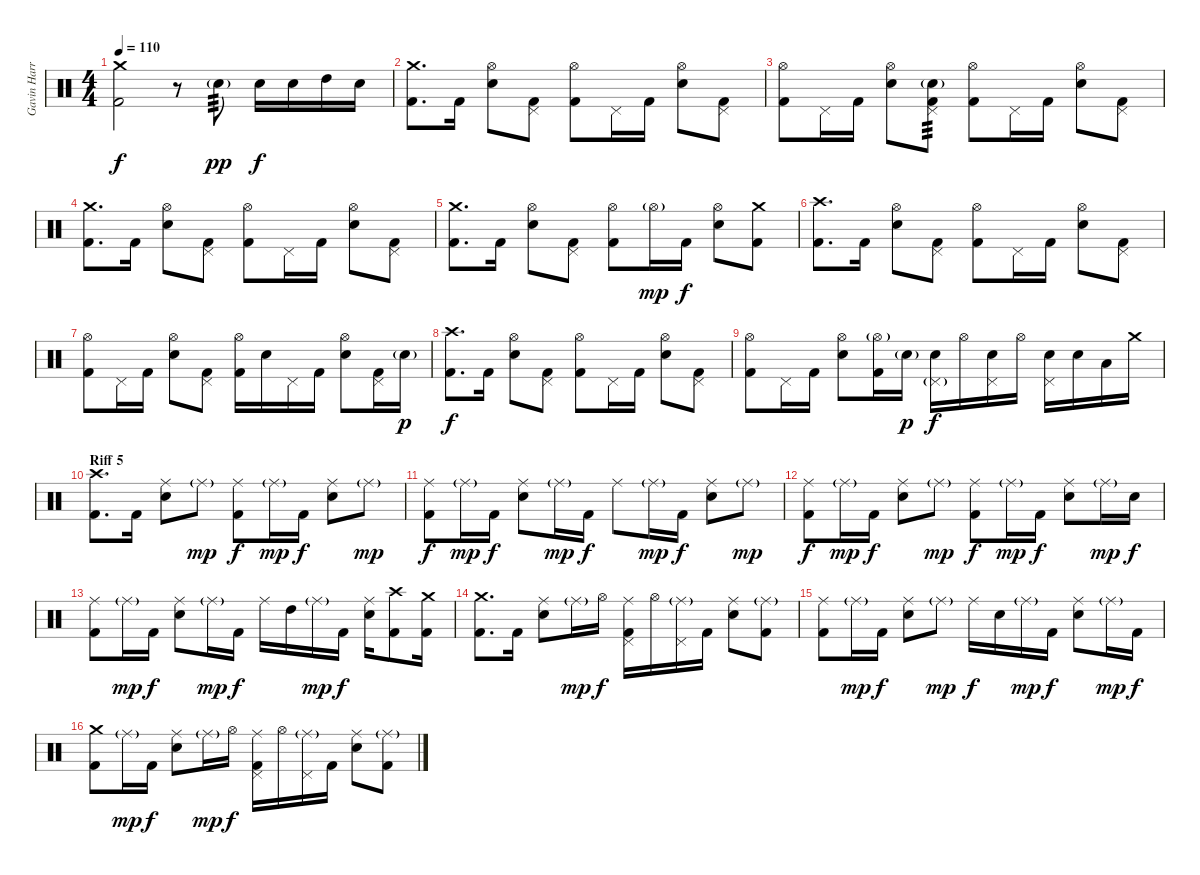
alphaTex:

\track ("Gavin Harrison - Drums" "Gavin Harr") {instrument percussion}
\staff {score}
\articulation defaults
\ts (4 4)
\tempo 110
\clef neutral
\ks c
("Crash medium (hit)" "Kick (hit) 2").2{dy f} r.8 "Electric Snare (hit)"{g}.8{tp 3 dy pp} "Electric Snare (hit)".16{dy f} "Electric Snare (hit)".16 "High Tom (hit)".16 "Electric Snare (hit)".16 |
("Crash medium (hit)" "Kick (hit) 2").8{d} "Kick (hit) 2".16 ("Hi-Hat (open)" "Electric Snare (hit)").8 ("Pedal Hi-Hat (hit)" "Kick (hit) 2").8 ("Hi-Hat (open)" "Kick (hit) 2").8 "Pedal Hi-Hat (hit)".16 "Kick (hit) 2".16 ("Hi-Hat (open)" "Electric Snare (hit)").8 ("Pedal Hi-Hat (hit)" "Kick (hit) 2").8 |
("Hi-Hat (open)" "Kick (hit) 2").8 "Pedal Hi-Hat (hit)".16 "Kick (hit) 2".16 ("Hi-Hat (open)" "Electric Snare (hit)").8 ("Pedal Hi-Hat (hit)" "Electric Snare (hit)"{g} "Kick (hit) 2").8{tp 3} ("Hi-Hat (open)" "Kick (hit) 2").8 "Pedal Hi-Hat (hit)".16 "Kick (hit) 2".16 ("Hi-Hat (open)" "Electric Snare (hit)").8 ("Pedal Hi-Hat (hit)" "Kick (hit) 2").8 |
("Crash medium (hit)" "Kick (hit) 2").8{d} "Kick (hit) 2".16 ("Hi-Hat (open)" "Electric Snare (hit)").8 ("Pedal Hi-Hat (hit)" "Kick (hit) 2").8 ("Hi-Hat (open)" "Kick (hit) 2").8 "Pedal Hi-Hat (hit)".16 "Kick (hit) 2".16 ("Hi-Hat (open)" "Electric Snare (hit)").8 ("Pedal Hi-Hat (hit)" "Kick (hit) 2").8 |
("Crash medium (hit)" "Kick (hit) 2").8{d} "Kick (hit) 2".16 ("Hi-Hat (open)" "Electric Snare (hit)").8 ("Pedal Hi-Hat (hit)" "Kick (hit) 2").8 ("Hi-Hat (open)" "Kick (hit) 2").8 "Hi-Hat (open)"{g}.16{dy mp} "Kick (hit) 2".16{dy f} ("Hi-Hat (open)" "Electric Snare (hit)").8 ("Crash medium (hit)" "Kick (hit) 2").8 |
("Crash high (hit)" "Kick (hit) 2").8{d} "Kick (hit) 2".16 ("Hi-Hat (open)" "Electric Snare (hit)").8 ("Pedal Hi-Hat (hit)" "Kick (hit) 2").8 ("Hi-Hat (open)" "Kick (hit) 2").8 "Pedal Hi-Hat (hit)".16 "Kick (hit) 2".16 ("Hi-Hat (open)" "Electric Snare (hit)").8 ("Pedal Hi-Hat (hit)" "Kick (hit) 2").8 |
("Hi-Hat (open)" "Kick (hit) 2").8 "Pedal Hi-Hat (hit)".16 "Kick (hit) 2".16 ("Hi-Hat (open)" "Electric Snare (hit)").8 ("Pedal Hi-Hat (hit)" "Kick (hit) 2").8 ("Hi-Hat (open)" "Kick (hit) 2").16 "Electric Snare (hit)".16 "Pedal Hi-Hat (hit)".16 "Kick (hit) 2".16 ("Hi-Hat (open)" "Electric Snare (hit)").8 ("Pedal Hi-Hat (hit)" "Kick (hit) 2").16 "Electric Snare (hit)"{g}.16{dy p} |
("Crash high (hit)" "Kick (hit) 2").8{d dy f} "Kick (hit) 2".16 ("Hi-Hat (open)" "Electric Snare (hit)").8 ("Pedal Hi-Hat (hit)" "Kick (hit) 2").8 ("Hi-Hat (open)" "Kick (hit) 2").8 "Pedal Hi-Hat (hit)".16 "Kick (hit) 2".16 ("Hi-Hat (open)" "Electric Snare (hit)").8 ("Pedal Hi-Hat (hit)" "Kick (hit) 2").8 |
("Hi-Hat (open)" "Kick (hit) 2").8 "Pedal Hi-Hat (hit)".16 "Kick (hit) 2".16 ("Hi-Hat (open)" "Electric Snare (hit)").8 ("Hi-Hat (open)"{g} "Kick (hit) 2").16 "Electric Snare (hit)"{g}.16{dy p} ("Pedal Hi-Hat (hit)"{g} "Electric Snare (hit)").16{dy f} "Hi-Hat (open)".16 ("Pedal Hi-Hat (hit)" "Electric Snare (hit)").16 "Hi-Hat (open)".16 ("Pedal Hi-Hat (hit)" "Electric Snare (hit)").16 "Electric Snare (hit)".16 "Low Tom (hit)".16 "Crash medium (hit)".16 |
\section ("" "Riff 5")
("Crash high (hit)" "Kick (hit) 2").8{d} "Kick (hit) 2".16 ("Ride (middle)" "Electric Snare (hit)").8 "Ride (middle)"{g}.8{dy mp} ("Ride (middle)" "Kick (hit) 2").8{dy f} "Ride (middle)"{g}.16{dy mp} "Kick (hit) 2".16{dy f} ("Ride (middle)" "Electric Snare (hit)").8 "Ride (middle)"{g}.8{dy mp} |
("Ride (middle)" "Kick (hit) 2").8{dy f} "Ride (middle)"{g}.16{dy mp} "Kick (hit) 2".16{dy f} ("Ride (middle)" "Electric Snare (hit)").8 "Ride (middle)"{g}.16{dy mp} "Kick (hit) 2".16{dy f} "Ride (middle)".8 "Ride (middle)"{g}.16{dy mp} "Kick (hit) 2".16{dy f} ("Ride (middle)" "Electric Snare (hit)").8 "Ride (middle)"{g}.8{dy mp} |
("Ride (middle)" "Kick (hit) 2").8{dy f} "Ride (middle)"{g}.16{dy mp} "Kick (hit) 2".16{dy f} ("Ride (middle)" "Electric Snare (hit)").8 "Ride (middle)"{g}.8{dy mp} ("Ride (middle)" "Kick (hit) 2").8{dy f} "Ride (middle)"{g}.16{dy mp} "Kick (hit) 2".16{dy f} ("Ride (middle)" "Electric Snare (hit)").8 "Ride (middle)"{g}.16{dy mp} "Electric Snare (hit)".16{dy f} |
("Ride (middle)" "Kick (hit) 2").8 "Ride (middle)"{g}.16{dy mp} "Kick (hit) 2".16{dy f} ("Ride (middle)" "Electric Snare (hit)").8 "Ride (middle)"{g}.16{dy mp} "Kick (hit) 2".16{dy f} "Ride (middle)".16 "High Tom (hit)".16 "Ride (middle)"{g}.16{dy mp} "Kick (hit) 2".16{dy f} ("Ride (middle)" "Electric Snare (hit)").16 ("Crash high (hit)" "Kick (hit) 2").8 ("Crash medium (hit)" "Kick (hit) 2").16 |
("Crash medium (hit)" "Kick (hit) 2").8{d} "Kick (hit) 2".16 ("Ride (middle)" "Electric Snare (hit)").8 "Ride (middle)"{g}.16{dy mp} "Hi-Hat (open)".16{dy f} ("Ride (middle)" "Pedal Hi-Hat (hit)" "Kick (hit) 2").16 "Hi-Hat (open)".16 ("Ride (middle)"{g} "Pedal Hi-Hat (hit)").16 "Kick (hit) 2".16 ("Ride (middle)" "Electric Snare (hit)").8 ("Ride (middle)"{g} "Kick (hit) 2").8 |
("Ride (middle)" "Kick (hit) 2").8 "Ride (middle)"{g}.16{dy mp} "Kick (hit) 2".16{dy f} ("Ride (middle)" "Electric Snare (hit)").8 "Ride (middle)"{g}.8{dy mp} "Ride (middle)".16{dy f} "Electric Snare (hit)".16 "Ride (middle)"{g}.16{dy mp} "Kick (hit) 2".16{dy f} ("Ride (middle)" "Electric Snare (hit)").8 "Ride (middle)"{g}.16{dy mp} "Kick (hit) 2".16{dy f} |
("Crash medium (hit)" "Kick (hit) 2").8 "Ride (middle)"{g}.16{dy mp} "Kick (hit) 2".16{dy f} ("Ride (middle)" "Electric Snare (hit)").8 "Ride (middle)"{g}.16{dy mp} "Hi-Hat (open)".16{dy f} ("Ride (middle)" "Pedal Hi-Hat (hit)" "Kick (hit) 2").16 "Hi-Hat (open)".16 ("Ride (middle)"{g} "Pedal Hi-Hat (hit)").16 "Kick (hit) 2".16 ("Ride (middle)" "Electric Snare (hit)").8 ("Ride (middle)"{g} "Kick (hit) 2").8
